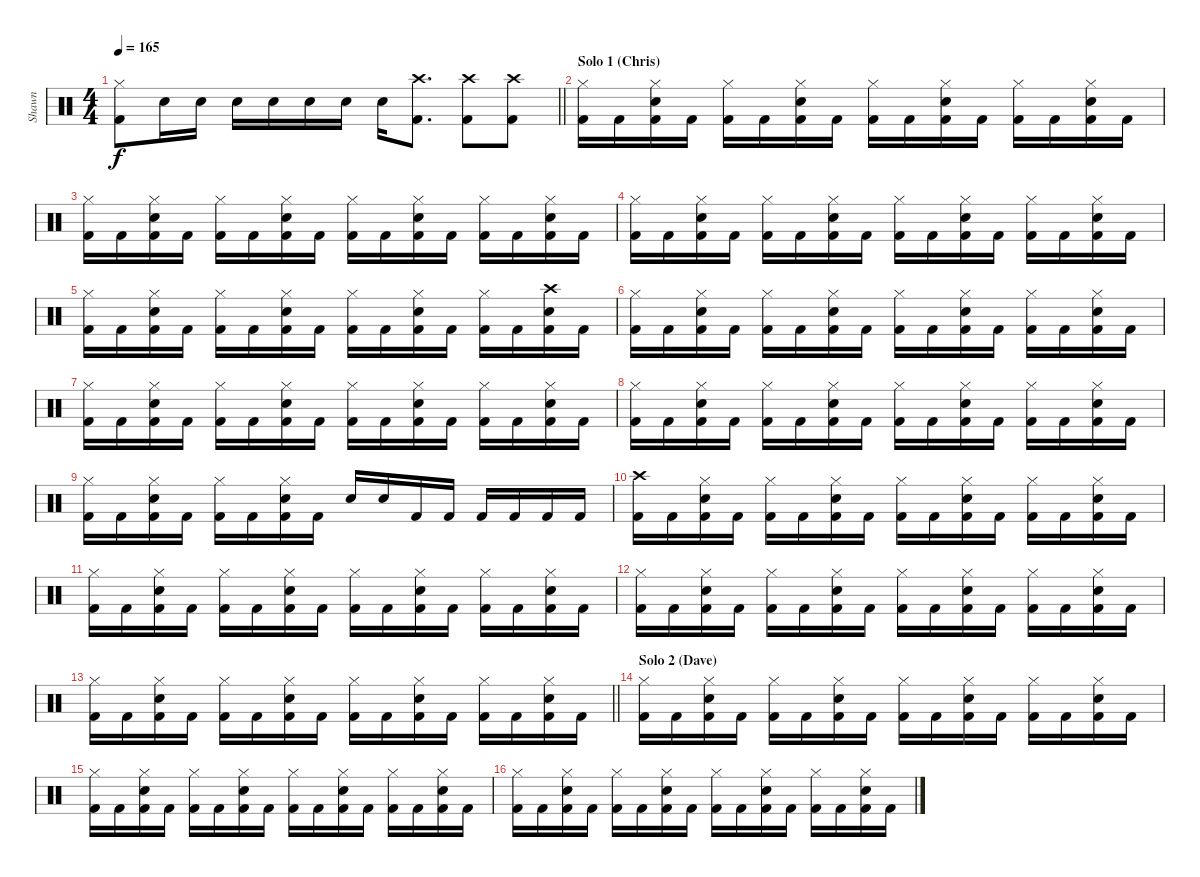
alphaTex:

\track ("Shawn" "Shawn") {instrument percussion}
\staff {score}
\articulation defaults
\ts (4 4)
\tempo 165
\clef neutral
\barLineRight lightlight
\ks c
("Hi-Hat (closed)" "Kick (hit) 2").8{dy f} "Snare (hit) 2".16 "Snare (hit) 2".16 "Snare (hit) 2".16 "Snare (hit) 2".16 "Snare (hit) 2".16 "Snare (hit) 2".16 "Snare (hit) 2".16 ("Crash high (hit)" "Kick (hit) 2").8{d} ("Crash high (hit)" "Kick (hit) 2").8 ("Crash high (hit)" "Kick (hit) 2").8 |
\section ("" "Solo 1 (Chris)")
("Hi-Hat (closed)" "Kick (hit) 2").16 "Kick (hit) 2".16 ("Hi-Hat (closed)" "Snare (hit) 2" "Kick (hit) 2").16 "Kick (hit) 2".16 ("Hi-Hat (closed)" "Kick (hit) 2").16 "Kick (hit) 2".16 ("Hi-Hat (closed)" "Snare (hit) 2" "Kick (hit) 2").16 "Kick (hit) 2".16 ("Hi-Hat (closed)" "Kick (hit) 2").16 "Kick (hit) 2".16 ("Hi-Hat (closed)" "Snare (hit) 2" "Kick (hit) 2").16 "Kick (hit) 2".16 ("Hi-Hat (closed)" "Kick (hit) 2").16 "Kick (hit) 2".16 ("Hi-Hat (closed)" "Snare (hit) 2" "Kick (hit) 2").16 "Kick (hit) 2".16 |
("Hi-Hat (closed)" "Kick (hit) 2").16 "Kick (hit) 2".16 ("Hi-Hat (closed)" "Snare (hit) 2" "Kick (hit) 2").16 "Kick (hit) 2".16 ("Hi-Hat (closed)" "Kick (hit) 2").16 "Kick (hit) 2".16 ("Hi-Hat (closed)" "Snare (hit) 2" "Kick (hit) 2").16 "Kick (hit) 2".16 ("Hi-Hat (closed)" "Kick (hit) 2").16 "Kick (hit) 2".16 ("Hi-Hat (closed)" "Snare (hit) 2" "Kick (hit) 2").16 "Kick (hit) 2".16 ("Hi-Hat (closed)" "Kick (hit) 2").16 "Kick (hit) 2".16 ("Hi-Hat (closed)" "Snare (hit) 2" "Kick (hit) 2").16 "Kick (hit) 2".16 |
("Hi-Hat (closed)" "Kick (hit) 2").16 "Kick (hit) 2".16 ("Hi-Hat (closed)" "Snare (hit) 2" "Kick (hit) 2").16 "Kick (hit) 2".16 ("Hi-Hat (closed)" "Kick (hit) 2").16 "Kick (hit) 2".16 ("Hi-Hat (closed)" "Snare (hit) 2" "Kick (hit) 2").16 "Kick (hit) 2".16 ("Hi-Hat (closed)" "Kick (hit) 2").16 "Kick (hit) 2".16 ("Hi-Hat (closed)" "Snare (hit) 2" "Kick (hit) 2").16 "Kick (hit) 2".16 ("Hi-Hat (closed)" "Kick (hit) 2").16 "Kick (hit) 2".16 ("Hi-Hat (closed)" "Snare (hit) 2" "Kick (hit) 2").16 "Kick (hit) 2".16 |
("Hi-Hat (closed)" "Kick (hit) 2").16 "Kick (hit) 2".16 ("Hi-Hat (closed)" "Snare (hit) 2" "Kick (hit) 2").16 "Kick (hit) 2".16 ("Hi-Hat (closed)" "Kick (hit) 2").16 "Kick (hit) 2".16 ("Hi-Hat (closed)" "Snare (hit) 2" "Kick (hit) 2").16 "Kick (hit) 2".16 ("Hi-Hat (closed)" "Kick (hit) 2").16 "Kick (hit) 2".16 ("Hi-Hat (closed)" "Snare (hit) 2" "Kick (hit) 2").16 "Kick (hit) 2".16 ("Hi-Hat (closed)" "Kick (hit) 2").16 "Kick (hit) 2".16 ("Crash high (hit)" "Snare (hit) 2" "Kick (hit) 2").16 "Kick (hit) 2".16 |
("Hi-Hat (closed)" "Kick (hit) 2").16 "Kick (hit) 2".16 ("Hi-Hat (closed)" "Snare (hit) 2" "Kick (hit) 2").16 "Kick (hit) 2".16 ("Hi-Hat (closed)" "Kick (hit) 2").16 "Kick (hit) 2".16 ("Hi-Hat (closed)" "Snare (hit) 2" "Kick (hit) 2").16 "Kick (hit) 2".16 ("Hi-Hat (closed)" "Kick (hit) 2").16 "Kick (hit) 2".16 ("Hi-Hat (closed)" "Snare (hit) 2" "Kick (hit) 2").16 "Kick (hit) 2".16 ("Hi-Hat (closed)" "Kick (hit) 2").16 "Kick (hit) 2".16 ("Hi-Hat (closed)" "Snare (hit) 2" "Kick (hit) 2").16 "Kick (hit) 2".16 |
("Hi-Hat (closed)" "Kick (hit) 2").16 "Kick (hit) 2".16 ("Hi-Hat (closed)" "Snare (hit) 2" "Kick (hit) 2").16 "Kick (hit) 2".16 ("Hi-Hat (closed)" "Kick (hit) 2").16 "Kick (hit) 2".16 ("Hi-Hat (closed)" "Snare (hit) 2" "Kick (hit) 2").16 "Kick (hit) 2".16 ("Hi-Hat (closed)" "Kick (hit) 2").16 "Kick (hit) 2".16 ("Hi-Hat (closed)" "Snare (hit) 2" "Kick (hit) 2").16 "Kick (hit) 2".16 ("Hi-Hat (closed)" "Kick (hit) 2").16 "Kick (hit) 2".16 ("Hi-Hat (closed)" "Snare (hit) 2" "Kick (hit) 2").16 "Kick (hit) 2".16 |
("Hi-Hat (closed)" "Kick (hit) 2").16 "Kick (hit) 2".16 ("Hi-Hat (closed)" "Snare (hit) 2" "Kick (hit) 2").16 "Kick (hit) 2".16 ("Hi-Hat (closed)" "Kick (hit) 2").16 "Kick (hit) 2".16 ("Hi-Hat (closed)" "Snare (hit) 2" "Kick (hit) 2").16 "Kick (hit) 2".16 ("Hi-Hat (closed)" "Kick (hit) 2").16 "Kick (hit) 2".16 ("Hi-Hat (closed)" "Snare (hit) 2" "Kick (hit) 2").16 "Kick (hit) 2".16 ("Hi-Hat (closed)" "Kick (hit) 2").16 "Kick (hit) 2".16 ("Hi-Hat (closed)" "Snare (hit) 2" "Kick (hit) 2").16 "Kick (hit) 2".16 |
("Hi-Hat (closed)" "Kick (hit) 2").16 "Kick (hit) 2".16 ("Hi-Hat (closed)" "Snare (hit) 2" "Kick (hit) 2").16 "Kick (hit) 2".16 ("Hi-Hat (closed)" "Kick (hit) 2").16 "Kick (hit) 2".16 ("Hi-Hat (closed)" "Snare (hit) 2" "Kick (hit) 2").16 "Kick (hit) 2".16 "Snare (hit) 2".16 "Snare (hit) 2".16 "Kick (hit) 2".16 "Kick (hit) 2".16 "Kick (hit) 2".16 "Kick (hit) 2".16 "Kick (hit) 2".16 "Kick (hit) 2".16 |
("Crash high (hit)" "Kick (hit) 2").16 "Kick (hit) 2".16 ("Hi-Hat (closed)" "Snare (hit) 2" "Kick (hit) 2").16 "Kick (hit) 2".16 ("Hi-Hat (closed)" "Kick (hit) 2").16 "Kick (hit) 2".16 ("Hi-Hat (closed)" "Snare (hit) 2" "Kick (hit) 2").16 "Kick (hit) 2".16 ("Hi-Hat (closed)" "Kick (hit) 2").16 "Kick (hit) 2".16 ("Hi-Hat (closed)" "Snare (hit) 2" "Kick (hit) 2").16 "Kick (hit) 2".16 ("Hi-Hat (closed)" "Kick (hit) 2").16 "Kick (hit) 2".16 ("Hi-Hat (closed)" "Snare (hit) 2" "Kick (hit) 2").16 "Kick (hit) 2".16 |
("Hi-Hat (closed)" "Kick (hit) 2").16 "Kick (hit) 2".16 ("Hi-Hat (closed)" "Snare (hit) 2" "Kick (hit) 2").16 "Kick (hit) 2".16 ("Hi-Hat (closed)" "Kick (hit) 2").16 "Kick (hit) 2".16 ("Hi-Hat (closed)" "Snare (hit) 2" "Kick (hit) 2").16 "Kick (hit) 2".16 ("Hi-Hat (closed)" "Kick (hit) 2").16 "Kick (hit) 2".16 ("Hi-Hat (closed)" "Snare (hit) 2" "Kick (hit) 2").16 "Kick (hit) 2".16 ("Hi-Hat (closed)" "Kick (hit) 2").16 "Kick (hit) 2".16 ("Hi-Hat (closed)" "Snare (hit) 2" "Kick (hit) 2").16 "Kick (hit) 2".16 |
("Hi-Hat (closed)" "Kick (hit) 2").16 "Kick (hit) 2".16 ("Hi-Hat (closed)" "Snare (hit) 2" "Kick (hit) 2").16 "Kick (hit) 2".16 ("Hi-Hat (closed)" "Kick (hit) 2").16 "Kick (hit) 2".16 ("Hi-Hat (closed)" "Snare (hit) 2" "Kick (hit) 2").16 "Kick (hit) 2".16 ("Hi-Hat (closed)" "Kick (hit) 2").16 "Kick (hit) 2".16 ("Hi-Hat (closed)" "Snare (hit) 2" "Kick (hit) 2").16 "Kick (hit) 2".16 ("Hi-Hat (closed)" "Kick (hit) 2").16 "Kick (hit) 2".16 ("Hi-Hat (closed)" "Snare (hit) 2" "Kick (hit) 2").16 "Kick (hit) 2".16 |
\barLineRight lightlight
("Hi-Hat (closed)" "Kick (hit) 2").16 "Kick (hit) 2".16 ("Hi-Hat (closed)" "Snare (hit) 2" "Kick (hit) 2").16 "Kick (hit) 2".16 ("Hi-Hat (closed)" "Kick (hit) 2").16 "Kick (hit) 2".16 ("Hi-Hat (closed)" "Snare (hit) 2" "Kick (hit) 2").16 "Kick (hit) 2".16 ("Hi-Hat (closed)" "Kick (hit) 2").16 "Kick (hit) 2".16 ("Hi-Hat (closed)" "Snare (hit) 2" "Kick (hit) 2").16 "Kick (hit) 2".16 ("Hi-Hat (closed)" "Kick (hit) 2").16 "Kick (hit) 2".16 ("Hi-Hat (closed)" "Snare (hit) 2" "Kick (hit) 2").16 "Kick (hit) 2".16 |
\section ("" "Solo 2 (Dave)")
("Hi-Hat (closed)" "Kick (hit) 2").16 "Kick (hit) 2".16 ("Hi-Hat (closed)" "Snare (hit) 2" "Kick (hit) 2").16 "Kick (hit) 2".16 ("Hi-Hat (closed)" "Kick (hit) 2").16 "Kick (hit) 2".16 ("Hi-Hat (closed)" "Snare (hit) 2" "Kick (hit) 2").16 "Kick (hit) 2".16 ("Hi-Hat (closed)" "Kick (hit) 2").16 "Kick (hit) 2".16 ("Hi-Hat (closed)" "Snare (hit) 2" "Kick (hit) 2").16 "Kick (hit) 2".16 ("Hi-Hat (closed)" "Kick (hit) 2").16 "Kick (hit) 2".16 ("Hi-Hat (closed)" "Snare (hit) 2" "Kick (hit) 2").16 "Kick (hit) 2".16 |
("Hi-Hat (closed)" "Kick (hit) 2").16 "Kick (hit) 2".16 ("Hi-Hat (closed)" "Snare (hit) 2" "Kick (hit) 2").16 "Kick (hit) 2".16 ("Hi-Hat (closed)" "Kick (hit) 2").16 "Kick (hit) 2".16 ("Hi-Hat (closed)" "Snare (hit) 2" "Kick (hit) 2").16 "Kick (hit) 2".16 ("Hi-Hat (closed)" "Kick (hit) 2").16 "Kick (hit) 2".16 ("Hi-Hat (closed)" "Snare (hit) 2" "Kick (hit) 2").16 "Kick (hit) 2".16 ("Hi-Hat (closed)" "Kick (hit) 2").16 "Kick (hit) 2".16 ("Hi-Hat (closed)" "Snare (hit) 2" "Kick (hit) 2").16 "Kick (hit) 2".16 |
("Hi-Hat (closed)" "Kick (hit) 2").16 "Kick (hit) 2".16 ("Hi-Hat (closed)" "Snare (hit) 2" "Kick (hit) 2").16 "Kick (hit) 2".16 ("Hi-Hat (closed)" "Kick (hit) 2").16 "Kick (hit) 2".16 ("Hi-Hat (closed)" "Snare (hit) 2" "Kick (hit) 2").16 "Kick (hit) 2".16 ("Hi-Hat (closed)" "Kick (hit) 2").16 "Kick (hit) 2".16 ("Hi-Hat (closed)" "Snare (hit) 2" "Kick (hit) 2").16 "Kick (hit) 2".16 ("Hi-Hat (closed)" "Kick (hit) 2").16 "Kick (hit) 2".16 ("Hi-Hat (closed)" "Snare (hit) 2" "Kick (hit) 2").16 "Kick (hit) 2".16
